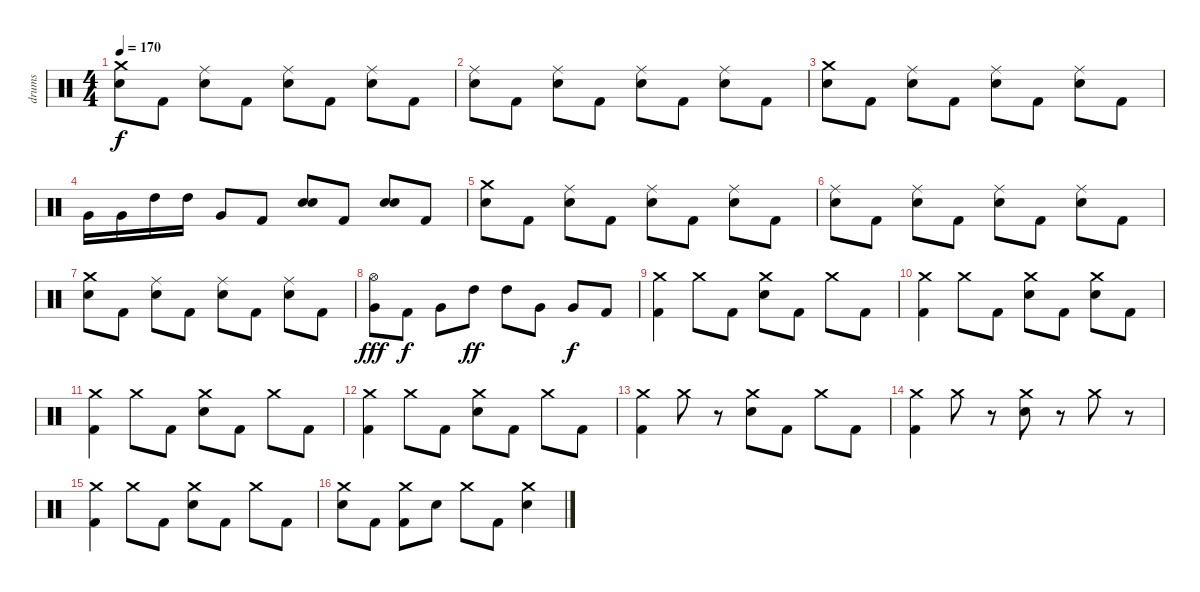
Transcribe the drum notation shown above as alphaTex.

\track ("drums" "drums") {instrument percussion}
\staff {score}
\articulation defaults
\ts (4 4)
\tempo 170
\clef neutral
\ks c
("Crash medium (hit)" "Electric Snare (hit)").8{dy f} "Kick (hit) 2".8 ("Ride (middle)" "Electric Snare (hit)").8 "Kick (hit) 2".8 ("Ride (middle)" "Electric Snare (hit)").8 "Kick (hit) 2".8 ("Ride (middle)" "Electric Snare (hit)").8 "Kick (hit) 2".8 |
("Ride (middle)" "Electric Snare (hit)").8 "Kick (hit) 2".8 ("Ride (middle)" "Electric Snare (hit)").8 "Kick (hit) 2".8 ("Ride (middle)" "Electric Snare (hit)").8 "Kick (hit) 2".8 ("Ride (middle)" "Electric Snare (hit)").8 "Kick (hit) 2".8 |
("Crash medium (hit)" "Electric Snare (hit)").8 "Kick (hit) 2".8 ("Ride (middle)" "Electric Snare (hit)").8 "Kick (hit) 2".8 ("Ride (middle)" "Electric Snare (hit)").8 "Kick (hit) 2".8 ("Ride (middle)" "Electric Snare (hit)").8 "Kick (hit) 2".8 |
"Very Low Tom (hit)".16 "Very Low Tom (hit)".16 "High Tom (hit)".16 "High Tom (hit)".16 "Very Low Tom (hit)".8 "Kick (hit) 2".8 ("Electric Snare (hit)" "Electric Snare (hit)").8 "Kick (hit) 2".8 ("Electric Snare (hit)" "Electric Snare (hit)").8 "Kick (hit) 2".8 |
("Crash medium (hit)" "Electric Snare (hit)").8 "Kick (hit) 2".8 ("Ride (middle)" "Electric Snare (hit)").8 "Kick (hit) 2".8 ("Ride (middle)" "Electric Snare (hit)").8 "Kick (hit) 2".8 ("Ride (middle)" "Electric Snare (hit)").8 "Kick (hit) 2".8 |
("Ride (middle)" "Electric Snare (hit)").8 "Kick (hit) 2".8 ("Ride (middle)" "Electric Snare (hit)").8 "Kick (hit) 2".8 ("Ride (middle)" "Electric Snare (hit)").8 "Kick (hit) 2".8 ("Ride (middle)" "Electric Snare (hit)").8 "Kick (hit) 2".8 |
("Crash medium (hit)" "Electric Snare (hit)").8 "Kick (hit) 2".8 ("Ride (middle)" "Electric Snare (hit)").8 "Kick (hit) 2".8 ("Ride (middle)" "Electric Snare (hit)").8 "Kick (hit) 2".8 ("Ride (middle)" "Electric Snare (hit)").8 "Kick (hit) 2".8 |
("Hi-Hat (open)" "Very Low Tom (hit)").8{dy fff} "Kick (hit) 2".8{dy f} "Very Low Tom (hit)".8 "High Tom (hit)".8{dy ff} "High Tom (hit)".8 "Very Low Tom (hit)".8 "Very Low Tom (hit)".8{dy f} "Kick (hit) 2".8 |
("Crash medium (hit)" "Kick (hit) 2").4 "Crash medium (hit)".8 "Kick (hit) 2".8 ("Crash medium (hit)" "Electric Snare (hit)").8 "Kick (hit) 2".8 "Crash medium (hit)".8 "Kick (hit) 2".8 |
("Crash medium (hit)" "Kick (hit) 2").4 "Crash medium (hit)".8 "Kick (hit) 2".8 ("Crash medium (hit)" "Electric Snare (hit)").8 "Kick (hit) 2".8 ("Crash medium (hit)" "Electric Snare (hit)").8 "Kick (hit) 2".8 |
("Crash medium (hit)" "Kick (hit) 2").4 "Crash medium (hit)".8 "Kick (hit) 2".8 ("Crash medium (hit)" "Electric Snare (hit)").8 "Kick (hit) 2".8 "Crash medium (hit)".8 "Kick (hit) 2".8 |
("Crash medium (hit)" "Kick (hit) 2").4 "Crash medium (hit)".8 "Kick (hit) 2".8 ("Crash medium (hit)" "Electric Snare (hit)").8 "Kick (hit) 2".8 "Crash medium (hit)".8 "Kick (hit) 2".8 |
("Crash medium (hit)" "Kick (hit) 2").4 "Crash medium (hit)".8 r.8 ("Crash medium (hit)" "Electric Snare (hit)").8 "Kick (hit) 2".8 "Crash medium (hit)".8 "Kick (hit) 2".8 |
("Crash medium (hit)" "Kick (hit) 2").4 "Crash medium (hit)".8 r.8 ("Crash medium (hit)" "Electric Snare (hit)").8 r.8 "Crash medium (hit)".8 r.8 |
("Crash medium (hit)" "Kick (hit) 2").4 "Crash medium (hit)".8 "Kick (hit) 2".8 ("Crash medium (hit)" "Electric Snare (hit)").8 "Kick (hit) 2".8 "Crash medium (hit)".8 "Kick (hit) 2".8 |
("Crash medium (hit)" "Electric Snare (hit)").8 "Kick (hit) 2".8 ("Crash medium (hit)" "Kick (hit) 2").8 "Electric Snare (hit)".8 "Crash medium (hit)".8 "Kick (hit) 2".8 ("Crash medium (hit)" "Electric Snare (hit)").4
